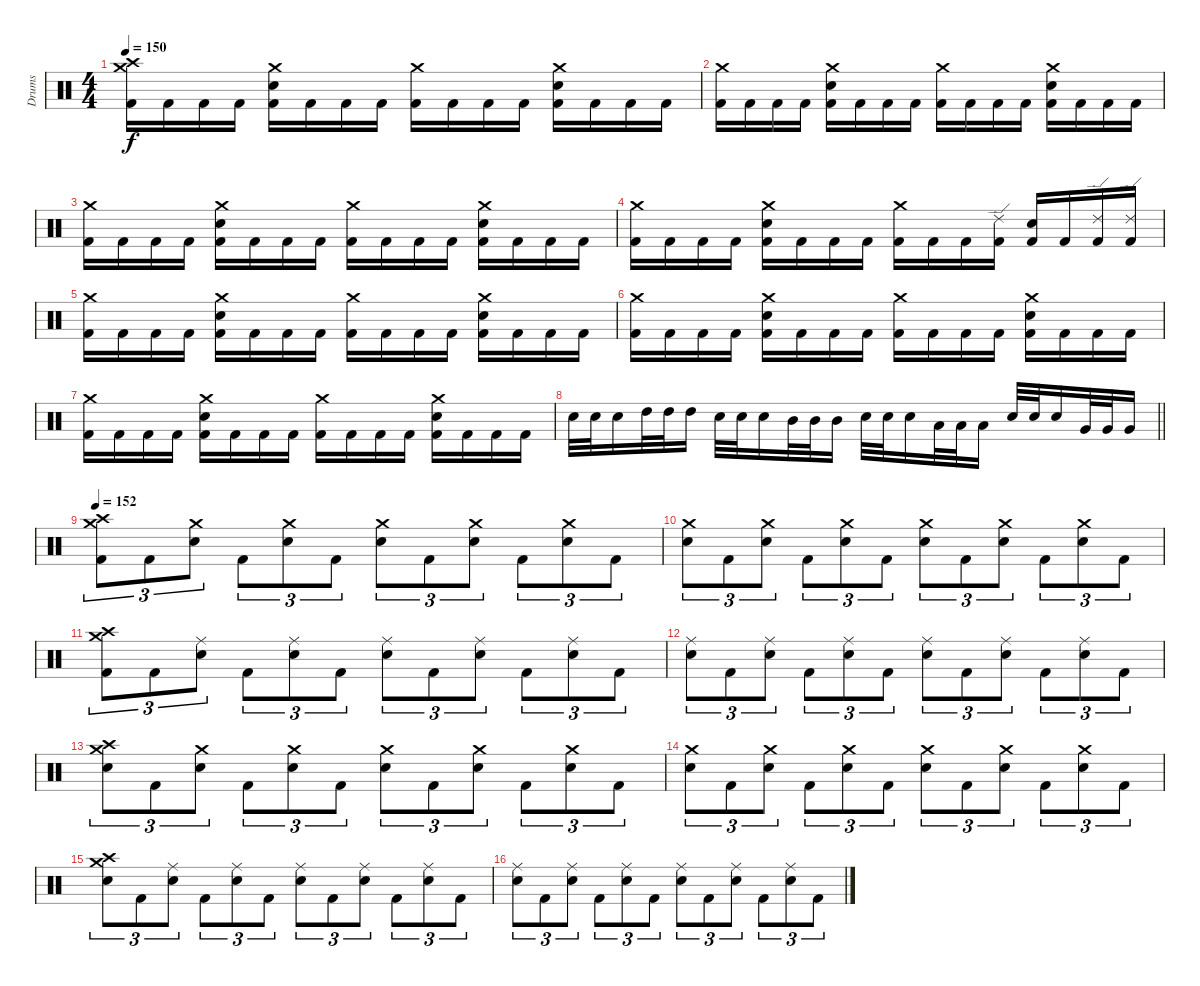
\track ("Drums" "Drums") {instrument percussion}
\staff {score}
\articulation defaults
\ts (4 4)
\tempo 150
\clef neutral
\ks c
("Crash medium (hit)" "Crash high (hit)" "Kick (hit) 2").16{dy f} "Kick (hit) 2".16 "Kick (hit) 2".16 "Kick (hit) 2".16 ("Crash medium (hit)" "Snare (hit) 2" "Kick (hit) 2").16 "Kick (hit) 2".16 "Kick (hit) 2".16 "Kick (hit) 2".16 ("Crash medium (hit)" "Kick (hit) 2").16 "Kick (hit) 2".16 "Kick (hit) 2".16 "Kick (hit) 2".16 ("Crash medium (hit)" "Snare (hit) 2" "Kick (hit) 2").16 "Kick (hit) 2".16 "Kick (hit) 2".16 "Kick (hit) 2".16 |
("Crash medium (hit)" "Kick (hit) 2").16 "Kick (hit) 2".16 "Kick (hit) 2".16 "Kick (hit) 2".16 ("Crash medium (hit)" "Snare (hit) 2" "Kick (hit) 2").16 "Kick (hit) 2".16 "Kick (hit) 2".16 "Kick (hit) 2".16 ("Crash medium (hit)" "Kick (hit) 2").16 "Kick (hit) 2".16 "Kick (hit) 2".16 "Kick (hit) 2".16 ("Crash medium (hit)" "Snare (hit) 2" "Kick (hit) 2").16 "Kick (hit) 2".16 "Kick (hit) 2".16 "Kick (hit) 2".16 |
("Crash medium (hit)" "Kick (hit) 2").16 "Kick (hit) 2".16 "Kick (hit) 2".16 "Kick (hit) 2".16 ("Crash medium (hit)" "Snare (hit) 2" "Kick (hit) 2").16 "Kick (hit) 2".16 "Kick (hit) 2".16 "Kick (hit) 2".16 ("Crash medium (hit)" "Kick (hit) 2").16 "Kick (hit) 2".16 "Kick (hit) 2".16 "Kick (hit) 2".16 ("Crash medium (hit)" "Snare (hit) 2" "Kick (hit) 2").16 "Kick (hit) 2".16 "Kick (hit) 2".16 "Kick (hit) 2".16 |
("Crash medium (hit)" "Kick (hit) 2").16 "Kick (hit) 2".16 "Kick (hit) 2".16 "Kick (hit) 2".16 ("Crash medium (hit)" "Snare (hit) 2" "Kick (hit) 2").16 "Kick (hit) 2".16 "Kick (hit) 2".16 "Kick (hit) 2".16 ("Crash medium (hit)" "Kick (hit) 2").16 "Kick (hit) 2".16 "Kick (hit) 2".16 ("Ride (edge) 2" "Kick (hit) 2").16 ("Snare (hit) 2" "Kick (hit) 2").16 "Kick (hit) 2".16 ("Ride (edge) 2" "Kick (hit) 2").16 ("Ride (edge) 2" "Kick (hit) 2").16 |
("Crash medium (hit)" "Kick (hit) 2").16 "Kick (hit) 2".16 "Kick (hit) 2".16 "Kick (hit) 2".16 ("Crash medium (hit)" "Snare (hit) 2" "Kick (hit) 2").16 "Kick (hit) 2".16 "Kick (hit) 2".16 "Kick (hit) 2".16 ("Crash medium (hit)" "Kick (hit) 2").16 "Kick (hit) 2".16 "Kick (hit) 2".16 "Kick (hit) 2".16 ("Crash medium (hit)" "Snare (hit) 2" "Kick (hit) 2").16 "Kick (hit) 2".16 "Kick (hit) 2".16 "Kick (hit) 2".16 |
("Crash medium (hit)" "Kick (hit) 2").16 "Kick (hit) 2".16 "Kick (hit) 2".16 "Kick (hit) 2".16 ("Crash medium (hit)" "Snare (hit) 2" "Kick (hit) 2").16 "Kick (hit) 2".16 "Kick (hit) 2".16 "Kick (hit) 2".16 ("Crash medium (hit)" "Kick (hit) 2").16 "Kick (hit) 2".16 "Kick (hit) 2".16 "Kick (hit) 2".16 ("Crash medium (hit)" "Snare (hit) 2" "Kick (hit) 2").16 "Kick (hit) 2".16 "Kick (hit) 2".16 "Kick (hit) 2".16 |
("Crash medium (hit)" "Kick (hit) 2").16 "Kick (hit) 2".16 "Kick (hit) 2".16 "Kick (hit) 2".16 ("Crash medium (hit)" "Snare (hit) 2" "Kick (hit) 2").16 "Kick (hit) 2".16 "Kick (hit) 2".16 "Kick (hit) 2".16 ("Crash medium (hit)" "Kick (hit) 2").16 "Kick (hit) 2".16 "Kick (hit) 2".16 "Kick (hit) 2".16 ("Crash medium (hit)" "Snare (hit) 2" "Kick (hit) 2").16 "Kick (hit) 2".16 "Kick (hit) 2".16 "Kick (hit) 2".16 |
\barLineRight lightlight "Snare (hit) 2".32 "Snare (hit) 2".32 "Snare (hit) 2".16 "High Tom (hit)".32 "High Tom (hit)".32 "High Tom (hit)".16 "Snare (hit) 2".32 "Snare (hit) 2".32 "Snare (hit) 2".16 "Mid Tom (hit)".32 "Mid Tom (hit)".32 "Mid Tom (hit)".16 "Snare (hit) 2".32 "Snare (hit) 2".32 "Snare (hit) 2".16 "Low Tom (hit)".32 "Low Tom (hit)".32 "Low Tom (hit)".16 "Snare (hit) 2".32 "Snare (hit) 2".32 "Snare (hit) 2".16 "Very Low Tom (hit)".32 "Very Low Tom (hit)".32 "Very Low Tom (hit)".16
|
\section ("" "")
\tempo 152
("Crash medium (hit)" "Crash high (hit)" "Kick (hit) 2").8{tu (3 2)} "Kick (hit) 2".8{tu (3 2)} ("Crash medium (hit)" "Snare (hit) 2").8{tu (3 2)} "Kick (hit) 2".8{tu (3 2)} ("Crash medium (hit)" "Snare (hit) 2").8{tu (3 2)} "Kick (hit) 2".8{tu (3 2)} ("Crash medium (hit)" "Snare (hit) 2").8{tu (3 2)} "Kick (hit) 2".8{tu (3 2)} ("Crash medium (hit)" "Snare (hit) 2").8{tu (3 2)} "Kick (hit) 2".8{tu (3 2)} ("Crash medium (hit)" "Snare (hit) 2").8{tu (3 2)} "Kick (hit) 2".8{tu (3 2)} |
("Crash medium (hit)" "Snare (hit) 2").8{tu (3 2)} "Kick (hit) 2".8{tu (3 2)} ("Crash medium (hit)" "Snare (hit) 2").8{tu (3 2)} "Kick (hit) 2".8{tu (3 2)} ("Crash medium (hit)" "Snare (hit) 2").8{tu (3 2)} "Kick (hit) 2".8{tu (3 2)} ("Crash medium (hit)" "Snare (hit) 2").8{tu (3 2)} "Kick (hit) 2".8{tu (3 2)} ("Crash medium (hit)" "Snare (hit) 2").8{tu (3 2)} "Kick (hit) 2".8{tu (3 2)} ("Crash medium (hit)" "Snare (hit) 2").8{tu (3 2)} "Kick (hit) 2".8{tu (3 2)} |
("Crash medium (hit)" "Crash high (hit)" "Kick (hit) 2").8{tu (3 2)} "Kick (hit) 2".8{tu (3 2)} ("Ride (middle)" "Snare (hit) 2").8{tu (3 2)} "Kick (hit) 2".8{tu (3 2)} ("Ride (middle)" "Snare (hit) 2").8{tu (3 2)} "Kick (hit) 2".8{tu (3 2)} ("Ride (middle)" "Snare (hit) 2").8{tu (3 2)} "Kick (hit) 2".8{tu (3 2)} ("Ride (middle)" "Snare (hit) 2").8{tu (3 2)} "Kick (hit) 2".8{tu (3 2)} ("Ride (middle)" "Snare (hit) 2").8{tu (3 2)} "Kick (hit) 2".8{tu (3 2)} |
("Ride (middle)" "Snare (hit) 2").8{tu (3 2)} "Kick (hit) 2".8{tu (3 2)} ("Ride (middle)" "Snare (hit) 2").8{tu (3 2)} "Kick (hit) 2".8{tu (3 2)} ("Ride (middle)" "Snare (hit) 2").8{tu (3 2)} "Kick (hit) 2".8{tu (3 2)} ("Ride (middle)" "Snare (hit) 2").8{tu (3 2)} "Kick (hit) 2".8{tu (3 2)} ("Ride (middle)" "Snare (hit) 2").8{tu (3 2)} "Kick (hit) 2".8{tu (3 2)} ("Ride (middle)" "Snare (hit) 2").8{tu (3 2)} "Kick (hit) 2".8{tu (3 2)} |
("Crash medium (hit)" "Crash high (hit)" "Snare (hit) 2").8{tu (3 2)} "Kick (hit) 2".8{tu (3 2)} ("Crash medium (hit)" "Snare (hit) 2").8{tu (3 2)} "Kick (hit) 2".8{tu (3 2)} ("Crash medium (hit)" "Snare (hit) 2").8{tu (3 2)} "Kick (hit) 2".8{tu (3 2)} ("Crash medium (hit)" "Snare (hit) 2").8{tu (3 2)} "Kick (hit) 2".8{tu (3 2)} ("Crash medium (hit)" "Snare (hit) 2").8{tu (3 2)} "Kick (hit) 2".8{tu (3 2)} ("Crash medium (hit)" "Snare (hit) 2").8{tu (3 2)} "Kick (hit) 2".8{tu (3 2)} |
("Crash medium (hit)" "Snare (hit) 2").8{tu (3 2)} "Kick (hit) 2".8{tu (3 2)} ("Crash medium (hit)" "Snare (hit) 2").8{tu (3 2)} "Kick (hit) 2".8{tu (3 2)} ("Crash medium (hit)" "Snare (hit) 2").8{tu (3 2)} "Kick (hit) 2".8{tu (3 2)} ("Crash medium (hit)" "Snare (hit) 2").8{tu (3 2)} "Kick (hit) 2".8{tu (3 2)} ("Crash medium (hit)" "Snare (hit) 2").8{tu (3 2)} "Kick (hit) 2".8{tu (3 2)} ("Crash medium (hit)" "Snare (hit) 2").8{tu (3 2)} "Kick (hit) 2".8{tu (3 2)} |
("Crash medium (hit)" "Crash high (hit)" "Snare (hit) 2").8{tu (3 2)} "Kick (hit) 2".8{tu (3 2)} ("Ride (middle)" "Snare (hit) 2").8{tu (3 2)} "Kick (hit) 2".8{tu (3 2)} ("Ride (middle)" "Snare (hit) 2").8{tu (3 2)} "Kick (hit) 2".8{tu (3 2)} ("Ride (middle)" "Snare (hit) 2").8{tu (3 2)} "Kick (hit) 2".8{tu (3 2)} ("Ride (middle)" "Snare (hit) 2").8{tu (3 2)} "Kick (hit) 2".8{tu (3 2)} ("Ride (middle)" "Snare (hit) 2").8{tu (3 2)} "Kick (hit) 2".8{tu (3 2)} |
("Ride (middle)" "Snare (hit) 2").8{tu (3 2)} "Kick (hit) 2".8{tu (3 2)} ("Ride (middle)" "Snare (hit) 2").8{tu (3 2)} "Kick (hit) 2".8{tu (3 2)} ("Ride (middle)" "Snare (hit) 2").8{tu (3 2)} "Kick (hit) 2".8{tu (3 2)} ("Ride (middle)" "Snare (hit) 2").8{tu (3 2)} "Kick (hit) 2".8{tu (3 2)} ("Ride (middle)" "Snare (hit) 2").8{tu (3 2)} "Kick (hit) 2".8{tu (3 2)} ("Ride (middle)" "Snare (hit) 2").8{tu (3 2)} "Kick (hit) 2".8{tu (3 2)}
